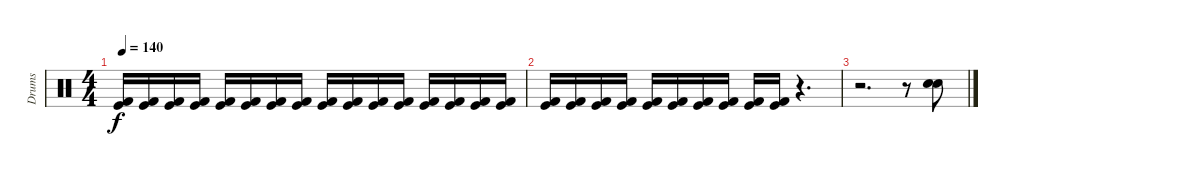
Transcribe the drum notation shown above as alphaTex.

\track ("Drums" "Drums") {instrument percussion}
\staff {score}
\articulation defaults
\ts (4 4)
\tempo 140
\clef neutral
\ks c
("Kick (hit) 2" "Kick (hit)").16{dy f} ("Kick (hit) 2" "Kick (hit)").16 ("Kick (hit) 2" "Kick (hit)").16 ("Kick (hit) 2" "Kick (hit)").16 ("Kick (hit) 2" "Kick (hit)").16 ("Kick (hit) 2" "Kick (hit)").16 ("Kick (hit) 2" "Kick (hit)").16 ("Kick (hit) 2" "Kick (hit)").16 ("Kick (hit) 2" "Kick (hit)").16 ("Kick (hit) 2" "Kick (hit)").16 ("Kick (hit) 2" "Kick (hit)").16 ("Kick (hit) 2" "Kick (hit)").16 ("Kick (hit) 2" "Kick (hit)").16 ("Kick (hit) 2" "Kick (hit)").16 ("Kick (hit) 2" "Kick (hit)").16 ("Kick (hit) 2" "Kick (hit)").16 |
("Kick (hit) 2" "Kick (hit)").16 ("Kick (hit) 2" "Kick (hit)").16 ("Kick (hit) 2" "Kick (hit)").16 ("Kick (hit) 2" "Kick (hit)").16 ("Kick (hit) 2" "Kick (hit)").16 ("Kick (hit) 2" "Kick (hit)").16 ("Kick (hit) 2" "Kick (hit)").16 ("Kick (hit) 2" "Kick (hit)").16 ("Kick (hit) 2" "Kick (hit)").16 ("Kick (hit) 2" "Kick (hit)").16 r.4{d} |
r.2{d} r.8 ("Electric Snare (hit)" "Snare (hit) 2").8
